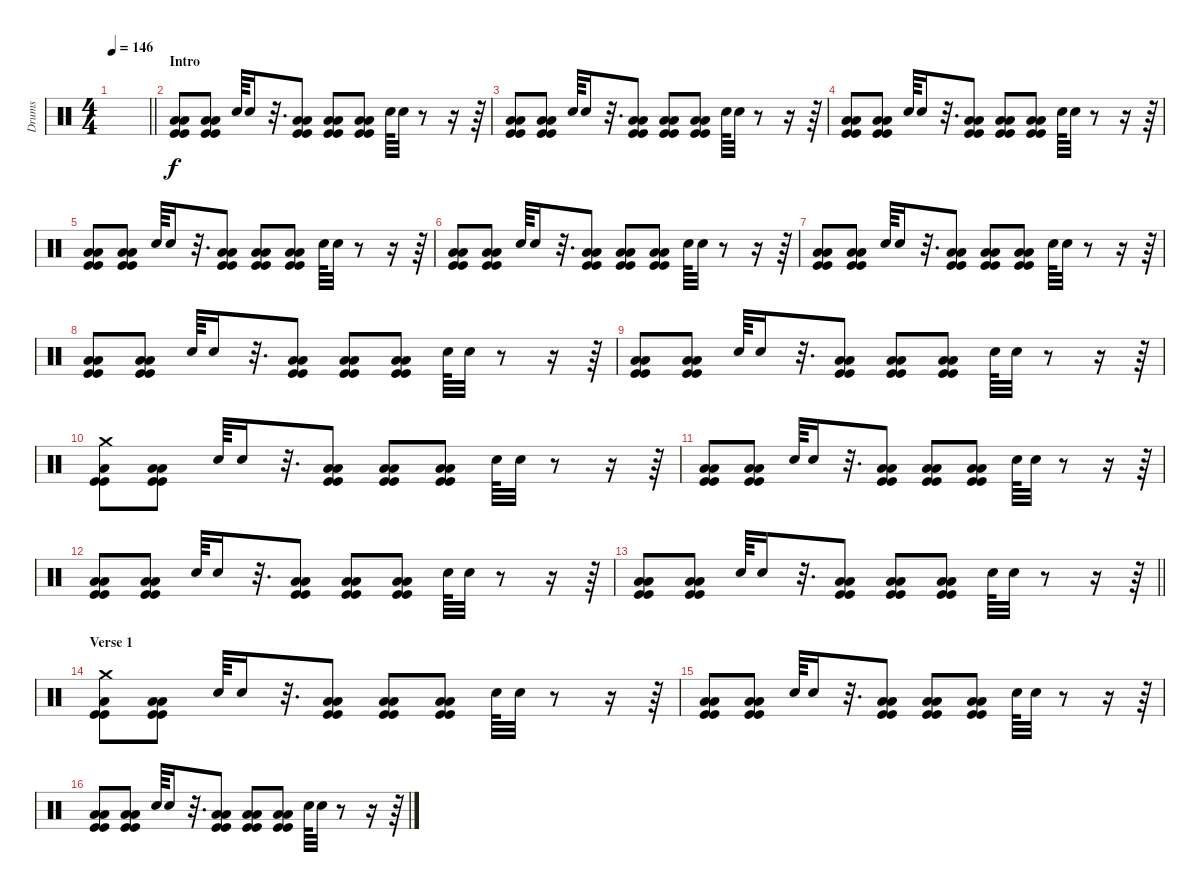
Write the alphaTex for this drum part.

\track ("Drums" "Drums") {instrument percussion}
\staff {score}
\articulation defaults
\ts (4 4)
\tempo 146
\clef neutral
\barLineRight lightlight
\ks c
|
\section ("" "Intro")
("Low Tom (hit)" "Low Floor Tom (hit)" "Kick (hit)" "Kick (hit)").8 ("Low Tom (hit)" "Low Floor Tom (hit)" "Kick (hit)" "Kick (hit)").8 "Snare (hit) 2".64 "Snare (hit) 2".16 r.32{d} ("Low Tom (hit)" "Low Floor Tom (hit)" "Kick (hit)" "Kick (hit)").8 ("Low Tom (hit)" "Low Floor Tom (hit)" "Kick (hit)" "Kick (hit)").8 ("Low Tom (hit)" "Low Floor Tom (hit)" "Kick (hit)" "Kick (hit)").8 "Snare (hit) 2".64 "Snare (hit) 2".32 r.8 r.16 r.64 |
("Low Tom (hit)" "Low Floor Tom (hit)" "Kick (hit)" "Kick (hit)").8 ("Low Tom (hit)" "Low Floor Tom (hit)" "Kick (hit)" "Kick (hit)").8 "Snare (hit) 2".64 "Snare (hit) 2".16 r.32{d} ("Low Tom (hit)" "Low Floor Tom (hit)" "Kick (hit)" "Kick (hit)").8 ("Low Tom (hit)" "Low Floor Tom (hit)" "Kick (hit)" "Kick (hit)").8 ("Low Tom (hit)" "Low Floor Tom (hit)" "Kick (hit)" "Kick (hit)").8 "Snare (hit) 2".64 "Snare (hit) 2".32 r.8 r.16 r.64 |
("Low Tom (hit)" "Low Floor Tom (hit)" "Kick (hit)" "Kick (hit)").8 ("Low Tom (hit)" "Low Floor Tom (hit)" "Kick (hit)" "Kick (hit)").8 "Snare (hit) 2".64 "Snare (hit) 2".16 r.32{d} ("Low Tom (hit)" "Low Floor Tom (hit)" "Kick (hit)" "Kick (hit)").8 ("Low Tom (hit)" "Low Floor Tom (hit)" "Kick (hit)" "Kick (hit)").8 ("Low Tom (hit)" "Low Floor Tom (hit)" "Kick (hit)" "Kick (hit)").8 "Snare (hit) 2".64 "Snare (hit) 2".32 r.8 r.16 r.64 |
("Low Tom (hit)" "Low Floor Tom (hit)" "Kick (hit)" "Kick (hit)").8 ("Low Tom (hit)" "Low Floor Tom (hit)" "Kick (hit)" "Kick (hit)").8 "Snare (hit) 2".64 "Snare (hit) 2".16 r.32{d} ("Low Tom (hit)" "Low Floor Tom (hit)" "Kick (hit)" "Kick (hit)").8 ("Low Tom (hit)" "Low Floor Tom (hit)" "Kick (hit)" "Kick (hit)").8 ("Low Tom (hit)" "Low Floor Tom (hit)" "Kick (hit)" "Kick (hit)").8 "Snare (hit) 2".64 "Snare (hit) 2".32 r.8 r.16 r.64 |
("Low Tom (hit)" "Low Floor Tom (hit)" "Kick (hit)" "Kick (hit)").8 ("Low Tom (hit)" "Low Floor Tom (hit)" "Kick (hit)" "Kick (hit)").8 "Snare (hit) 2".64 "Snare (hit) 2".16 r.32{d} ("Low Tom (hit)" "Low Floor Tom (hit)" "Kick (hit)" "Kick (hit)").8 ("Low Tom (hit)" "Low Floor Tom (hit)" "Kick (hit)" "Kick (hit)").8 ("Low Tom (hit)" "Low Floor Tom (hit)" "Kick (hit)" "Kick (hit)").8 "Snare (hit) 2".64 "Snare (hit) 2".32 r.8 r.16 r.64 |
("Low Tom (hit)" "Low Floor Tom (hit)" "Kick (hit)" "Kick (hit)").8 ("Low Tom (hit)" "Low Floor Tom (hit)" "Kick (hit)" "Kick (hit)").8 "Snare (hit) 2".64 "Snare (hit) 2".16 r.32{d} ("Low Tom (hit)" "Low Floor Tom (hit)" "Kick (hit)" "Kick (hit)").8 ("Low Tom (hit)" "Low Floor Tom (hit)" "Kick (hit)" "Kick (hit)").8 ("Low Tom (hit)" "Low Floor Tom (hit)" "Kick (hit)" "Kick (hit)").8 "Snare (hit) 2".64 "Snare (hit) 2".32 r.8 r.16 r.64 |
("Low Tom (hit)" "Low Floor Tom (hit)" "Kick (hit)" "Kick (hit)").8 ("Low Tom (hit)" "Low Floor Tom (hit)" "Kick (hit)" "Kick (hit)").8 "Snare (hit) 2".64 "Snare (hit) 2".16 r.32{d} ("Low Tom (hit)" "Low Floor Tom (hit)" "Kick (hit)" "Kick (hit)").8 ("Low Tom (hit)" "Low Floor Tom (hit)" "Kick (hit)" "Kick (hit)").8 ("Low Tom (hit)" "Low Floor Tom (hit)" "Kick (hit)" "Kick (hit)").8 "Snare (hit) 2".64 "Snare (hit) 2".32 r.8 r.16 r.64 |
("Low Tom (hit)" "Low Floor Tom (hit)" "Kick (hit)" "Kick (hit)").8 ("Low Tom (hit)" "Low Floor Tom (hit)" "Kick (hit)" "Kick (hit)").8 "Snare (hit) 2".64 "Snare (hit) 2".16 r.32{d} ("Low Tom (hit)" "Low Floor Tom (hit)" "Kick (hit)" "Kick (hit)").8 ("Low Tom (hit)" "Low Floor Tom (hit)" "Kick (hit)" "Kick (hit)").8 ("Low Tom (hit)" "Low Floor Tom (hit)" "Kick (hit)" "Kick (hit)").8 "Snare (hit) 2".64 "Snare (hit) 2".32 r.8 r.16 r.64 |
("Crash medium (hit)" "Low Tom (hit)" "Kick (hit)" "Kick (hit)").8 ("Low Tom (hit)" "Low Floor Tom (hit)" "Kick (hit)" "Kick (hit)").8 "Snare (hit) 2".64 "Snare (hit) 2".16 r.32{d} ("Low Tom (hit)" "Low Floor Tom (hit)" "Kick (hit)" "Kick (hit)").8 ("Low Tom (hit)" "Low Floor Tom (hit)" "Kick (hit)" "Kick (hit)").8 ("Low Tom (hit)" "Low Floor Tom (hit)" "Kick (hit)" "Kick (hit)").8 "Snare (hit) 2".64 "Snare (hit) 2".32 r.8 r.16 r.64 |
("Low Tom (hit)" "Low Floor Tom (hit)" "Kick (hit)" "Kick (hit)").8 ("Low Tom (hit)" "Low Floor Tom (hit)" "Kick (hit)" "Kick (hit)").8 "Snare (hit) 2".64 "Snare (hit) 2".16 r.32{d} ("Low Tom (hit)" "Low Floor Tom (hit)" "Kick (hit)" "Kick (hit)").8 ("Low Tom (hit)" "Low Floor Tom (hit)" "Kick (hit)" "Kick (hit)").8 ("Low Tom (hit)" "Low Floor Tom (hit)" "Kick (hit)" "Kick (hit)").8 "Snare (hit) 2".64 "Snare (hit) 2".32 r.8 r.16 r.64 |
("Low Tom (hit)" "Low Floor Tom (hit)" "Kick (hit)" "Kick (hit)").8 ("Low Tom (hit)" "Low Floor Tom (hit)" "Kick (hit)" "Kick (hit)").8 "Snare (hit) 2".64 "Snare (hit) 2".16 r.32{d} ("Low Tom (hit)" "Low Floor Tom (hit)" "Kick (hit)" "Kick (hit)").8 ("Low Tom (hit)" "Low Floor Tom (hit)" "Kick (hit)" "Kick (hit)").8 ("Low Tom (hit)" "Low Floor Tom (hit)" "Kick (hit)" "Kick (hit)").8 "Snare (hit) 2".64 "Snare (hit) 2".32 r.8 r.16 r.64 |
\barLineRight lightlight
("Low Tom (hit)" "Low Floor Tom (hit)" "Kick (hit)" "Kick (hit)").8 ("Low Tom (hit)" "Low Floor Tom (hit)" "Kick (hit)" "Kick (hit)").8 "Snare (hit) 2".64 "Snare (hit) 2".16 r.32{d} ("Low Tom (hit)" "Low Floor Tom (hit)" "Kick (hit)" "Kick (hit)").8 ("Low Tom (hit)" "Low Floor Tom (hit)" "Kick (hit)" "Kick (hit)").8 ("Low Tom (hit)" "Low Floor Tom (hit)" "Kick (hit)" "Kick (hit)").8 "Snare (hit) 2".64 "Snare (hit) 2".32 r.8 r.16 r.64 |
\section ("" "Verse 1")
("Crash medium (hit)" "Low Tom (hit)" "Kick (hit)" "Kick (hit)").8 ("Low Tom (hit)" "Low Floor Tom (hit)" "Kick (hit)" "Kick (hit)").8 "Snare (hit) 2".64 "Snare (hit) 2".16 r.32{d} ("Low Tom (hit)" "Low Floor Tom (hit)" "Kick (hit)" "Kick (hit)").8 ("Low Tom (hit)" "Low Floor Tom (hit)" "Kick (hit)" "Kick (hit)").8 ("Low Tom (hit)" "Low Floor Tom (hit)" "Kick (hit)" "Kick (hit)").8 "Snare (hit) 2".64 "Snare (hit) 2".32 r.8 r.16 r.64 |
("Low Tom (hit)" "Low Floor Tom (hit)" "Kick (hit)" "Kick (hit)").8 ("Low Tom (hit)" "Low Floor Tom (hit)" "Kick (hit)" "Kick (hit)").8 "Snare (hit) 2".64 "Snare (hit) 2".16 r.32{d} ("Low Tom (hit)" "Low Floor Tom (hit)" "Kick (hit)" "Kick (hit)").8 ("Low Tom (hit)" "Low Floor Tom (hit)" "Kick (hit)" "Kick (hit)").8 ("Low Tom (hit)" "Low Floor Tom (hit)" "Kick (hit)" "Kick (hit)").8 "Snare (hit) 2".64 "Snare (hit) 2".32 r.8 r.16 r.64 |
("Low Tom (hit)" "Low Floor Tom (hit)" "Kick (hit)" "Kick (hit)").8 ("Low Tom (hit)" "Low Floor Tom (hit)" "Kick (hit)" "Kick (hit)").8 "Snare (hit) 2".64 "Snare (hit) 2".16 r.32{d} ("Low Tom (hit)" "Low Floor Tom (hit)" "Kick (hit)" "Kick (hit)").8 ("Low Tom (hit)" "Low Floor Tom (hit)" "Kick (hit)" "Kick (hit)").8 ("Low Tom (hit)" "Low Floor Tom (hit)" "Kick (hit)" "Kick (hit)").8 "Snare (hit) 2".64 "Snare (hit) 2".32 r.8 r.16 r.64
